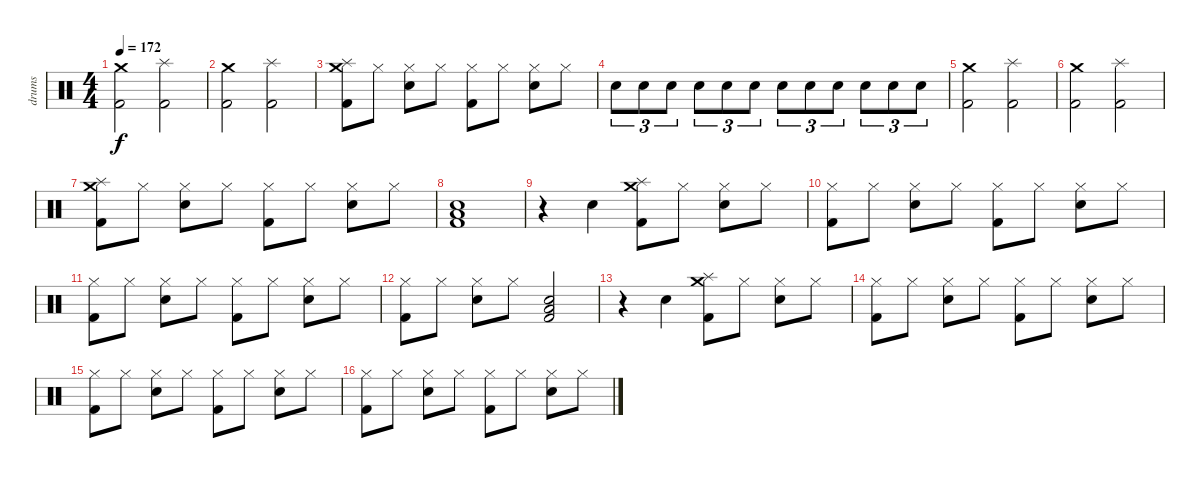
\track ("drums" "drums") {instrument percussion}
\staff {score}
\articulation defaults
\ts (4 4)
\tempo 172
\clef neutral
\ks c
("Crash medium (hit)" "Kick (hit) 2").2{dy f} ("Splash (hit)" "Kick (hit) 2").2 |
("Crash medium (hit)" "Kick (hit) 2").2 ("Splash (hit)" "Kick (hit) 2").2 |
("Crash medium (hit)" "Splash (hit)" "Kick (hit) 2").8 "Hi-Hat (closed)".8 ("Hi-Hat (closed)" "Snare (hit) 2").8 "Hi-Hat (closed)".8 ("Hi-Hat (closed)" "Kick (hit) 2").8 "Hi-Hat (closed)".8 ("Hi-Hat (closed)" "Snare (hit) 2").8 "Hi-Hat (closed)".8 |
"Snare (hit) 2".8{tu (3 2)} "Snare (hit) 2".8{tu (3 2)} "Snare (hit) 2".8{tu (3 2)} "Snare (hit) 2".8{tu (3 2)} "Snare (hit) 2".8{tu (3 2)} "Snare (hit) 2".8{tu (3 2)} "Snare (hit) 2".8{tu (3 2)} "Snare (hit) 2".8{tu (3 2)} "Snare (hit) 2".8{tu (3 2)} "Snare (hit) 2".8{tu (3 2)} "Snare (hit) 2".8{tu (3 2)} "Snare (hit) 2".8{tu (3 2)} |
("Crash medium (hit)" "Kick (hit) 2").2 ("Splash (hit)" "Kick (hit) 2").2 |
("Crash medium (hit)" "Kick (hit) 2").2 ("Splash (hit)" "Kick (hit) 2").2 |
("Crash medium (hit)" "Splash (hit)" "Kick (hit) 2").8 "Hi-Hat (closed)".8 ("Hi-Hat (closed)" "Snare (hit) 2").8 "Hi-Hat (closed)".8 ("Hi-Hat (closed)" "Kick (hit) 2").8 "Hi-Hat (closed)".8 ("Hi-Hat (closed)" "Snare (hit) 2").8 "Hi-Hat (closed)".8 |
("Low Floor Tom (hit)" "Snare (hit) 2" "Kick (hit) 2").1 |
r.4 "Snare (hit) 2".4 ("Crash medium (hit)" "Splash (hit)" "Kick (hit) 2").8 "Hi-Hat (closed)".8 ("Hi-Hat (closed)" "Snare (hit) 2").8 "Hi-Hat (closed)".8 |
("Hi-Hat (closed)" "Kick (hit) 2").8 "Hi-Hat (closed)".8 ("Hi-Hat (closed)" "Snare (hit) 2").8 "Hi-Hat (closed)".8 ("Hi-Hat (closed)" "Kick (hit) 2").8 "Hi-Hat (closed)".8 ("Hi-Hat (closed)" "Snare (hit) 2").8 "Hi-Hat (closed)".8 |
("Hi-Hat (closed)" "Kick (hit) 2").8 "Hi-Hat (closed)".8 ("Hi-Hat (closed)" "Snare (hit) 2").8 "Hi-Hat (closed)".8 ("Hi-Hat (closed)" "Kick (hit) 2").8 "Hi-Hat (closed)".8 ("Hi-Hat (closed)" "Snare (hit) 2").8 "Hi-Hat (closed)".8 |
("Hi-Hat (closed)" "Kick (hit) 2").8 "Hi-Hat (closed)".8 ("Hi-Hat (closed)" "Snare (hit) 2").8 "Hi-Hat (closed)".8 ("Low Floor Tom (hit)" "Snare (hit) 2" "Kick (hit) 2").2 |
r.4 "Snare (hit) 2".4 ("Crash medium (hit)" "Splash (hit)" "Kick (hit) 2").8 "Hi-Hat (closed)".8 ("Hi-Hat (closed)" "Snare (hit) 2").8 "Hi-Hat (closed)".8 |
("Hi-Hat (closed)" "Kick (hit) 2").8 "Hi-Hat (closed)".8 ("Hi-Hat (closed)" "Snare (hit) 2").8 "Hi-Hat (closed)".8 ("Hi-Hat (closed)" "Kick (hit) 2").8 "Hi-Hat (closed)".8 ("Hi-Hat (closed)" "Snare (hit) 2").8 "Hi-Hat (closed)".8 |
("Hi-Hat (closed)" "Kick (hit) 2").8 "Hi-Hat (closed)".8 ("Hi-Hat (closed)" "Snare (hit) 2").8 "Hi-Hat (closed)".8 ("Hi-Hat (closed)" "Kick (hit) 2").8 "Hi-Hat (closed)".8 ("Hi-Hat (closed)" "Snare (hit) 2").8 "Hi-Hat (closed)".8 |
("Hi-Hat (closed)" "Kick (hit) 2").8 "Hi-Hat (closed)".8 ("Hi-Hat (closed)" "Snare (hit) 2").8 "Hi-Hat (closed)".8 ("Hi-Hat (closed)" "Kick (hit) 2").8 "Hi-Hat (closed)".8 ("Hi-Hat (closed)" "Snare (hit) 2").8 "Hi-Hat (closed)".8
